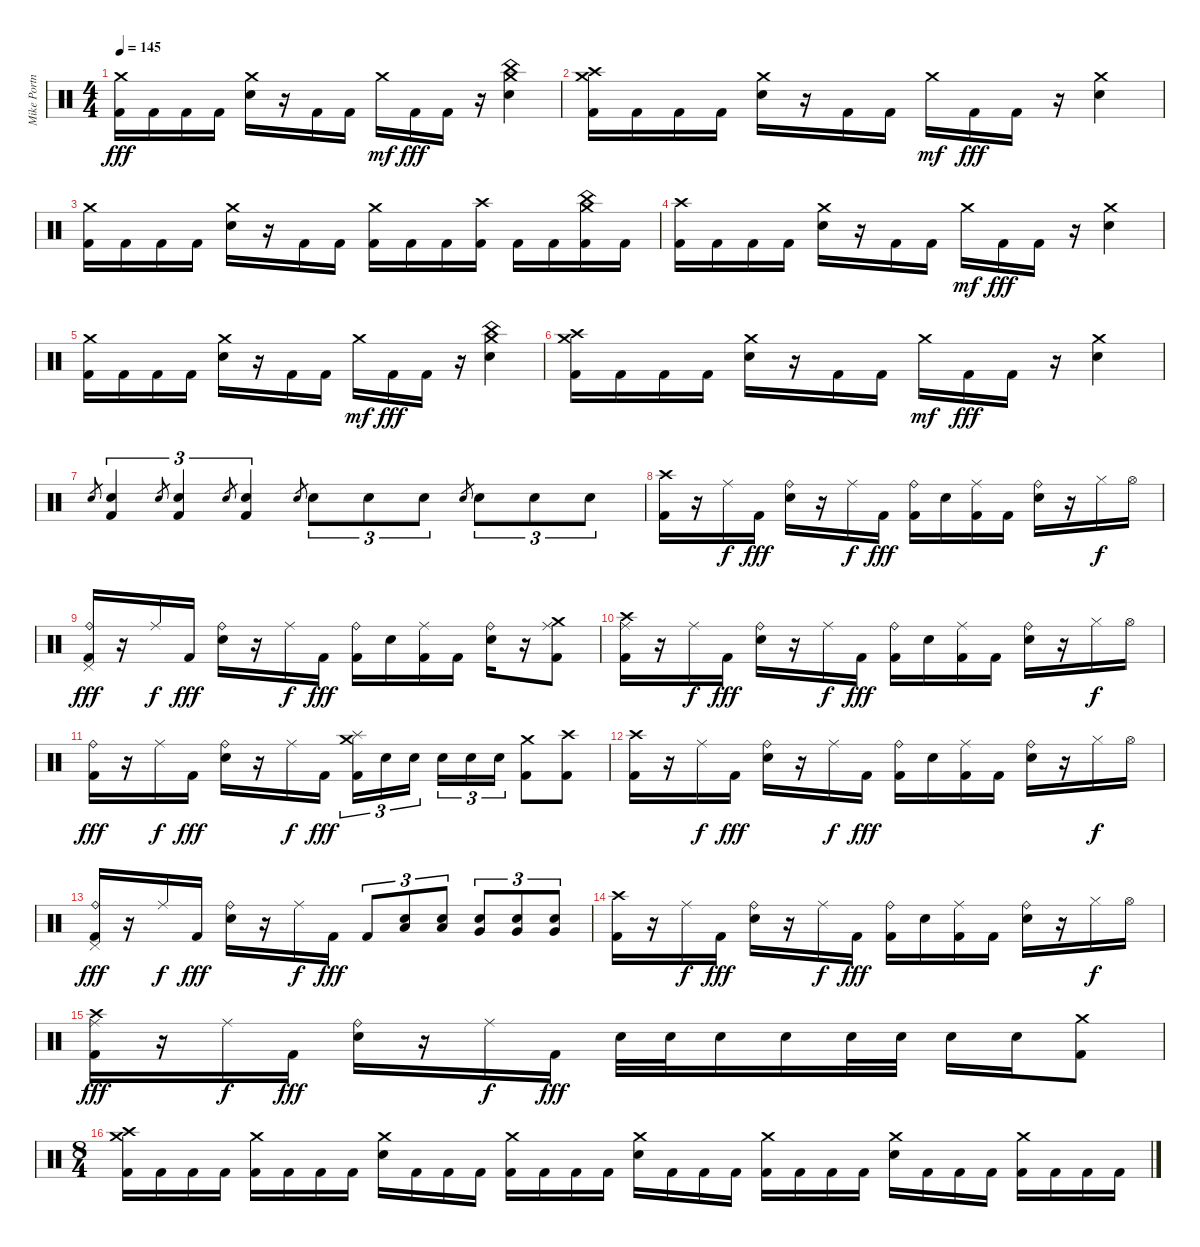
\track ("Mike Portnoy" "Mike Portn") {instrument percussion}
\staff {score}
\articulation defaults
\ts (4 4)
\tempo 145
\clef neutral
\ks c
("Crash medium (hit)" "Kick (hit) 2").16{dy fff} "Kick (hit) 2".16 "Kick (hit) 2".16 "Kick (hit) 2".16 ("Crash medium (hit)" "Electric Snare (hit)").16 r.16 "Kick (hit) 2".16 "Kick (hit) 2".16 "Crash medium (hit)".16{dy mf} "Kick (hit) 2".16{dy fff} "Kick (hit) 2".16 r.16 ("China (hit)" "Crash medium (hit)" "Electric Snare (hit)").4 |
("Crash high (hit)" "Crash medium (hit)" "Kick (hit) 2").16 "Kick (hit) 2".16 "Kick (hit) 2".16 "Kick (hit) 2".16 ("Crash medium (hit)" "Electric Snare (hit)").16 r.16 "Kick (hit) 2".16 "Kick (hit) 2".16 "Crash medium (hit)".16{dy mf} "Kick (hit) 2".16{dy fff} "Kick (hit) 2".16 r.16 ("Crash medium (hit)" "Electric Snare (hit)").4 |
("Crash medium (hit)" "Kick (hit) 2").16 "Kick (hit) 2".16 "Kick (hit) 2".16 "Kick (hit) 2".16 ("Crash medium (hit)" "Electric Snare (hit)").16 r.16 "Kick (hit) 2".16 "Kick (hit) 2".16 ("Crash medium (hit)" "Kick (hit) 2").16 "Kick (hit) 2".16 "Kick (hit) 2".16 ("Crash high (hit)" "Kick (hit) 2").16 "Kick (hit) 2".16 "Kick (hit) 2".16 ("China (hit)" "Crash medium (hit)" "Kick (hit) 2").16 "Kick (hit) 2".16 |
("Crash high (hit)" "Kick (hit) 2").16 "Kick (hit) 2".16 "Kick (hit) 2".16 "Kick (hit) 2".16 ("Crash medium (hit)" "Electric Snare (hit)").16 r.16 "Kick (hit) 2".16 "Kick (hit) 2".16 "Crash medium (hit)".16{dy mf} "Kick (hit) 2".16{dy fff} "Kick (hit) 2".16 r.16 ("Crash medium (hit)" "Electric Snare (hit)").4 |
("Crash medium (hit)" "Kick (hit) 2").16 "Kick (hit) 2".16 "Kick (hit) 2".16 "Kick (hit) 2".16 ("Crash medium (hit)" "Electric Snare (hit)").16 r.16 "Kick (hit) 2".16 "Kick (hit) 2".16 "Crash medium (hit)".16{dy mf} "Kick (hit) 2".16{dy fff} "Kick (hit) 2".16 r.16 ("China (hit)" "Crash medium (hit)" "Electric Snare (hit)").4 |
("Crash high (hit)" "Crash medium (hit)" "Kick (hit) 2").16 "Kick (hit) 2".16 "Kick (hit) 2".16 "Kick (hit) 2".16 ("Crash medium (hit)" "Electric Snare (hit)").16 r.16 "Kick (hit) 2".16 "Kick (hit) 2".16 "Crash medium (hit)".16{dy mf} "Kick (hit) 2".16{dy fff} "Kick (hit) 2".16 r.16 ("Crash medium (hit)" "Electric Snare (hit)").4 |
"Electric Snare (hit)".8{gr} ("Kick (hit) 2" "Electric Snare (hit)").4{tu (3 2) bd 480} "Electric Snare (hit)".8{gr} ("Kick (hit) 2" "Electric Snare (hit)").4{tu (3 2) bd 480} "Electric Snare (hit)".8{gr} ("Kick (hit) 2" "Electric Snare (hit)").4{tu (3 2) bd 480} "Electric Snare (hit)".8{gr} "Electric Snare (hit)".8{tu (3 2)} "Electric Snare (hit)".8{tu (3 2)} "Electric Snare (hit)".8{tu (3 2)} "Electric Snare (hit)".8{gr} "Electric Snare (hit)".8{tu (3 2)} "Electric Snare (hit)".8{tu (3 2)} "Electric Snare (hit)".8{tu (3 2)} |
("Crash high (hit)" "Kick (hit) 2").16 r.16 "Ride (middle)".16{dy f} "Kick (hit) 2".16{dy fff} ("Ride (bell)" "Electric Snare (hit)").16 r.16 "Ride (middle)".16{dy f} "Kick (hit) 2".16{dy fff} ("Ride (bell)" "Kick (hit) 2").16 "Electric Snare (hit)".16 ("Ride (middle)" "Kick (hit) 2").16 "Kick (hit) 2".16 ("Ride (bell)" "Electric Snare (hit)").16 r.16 "Hi-Hat (closed)".16{dy f} "Hi-Hat (open)".16 |
("Pedal Hi-Hat (hit)" "Ride (bell)" "Kick (hit) 2").16{dy fff} r.16 "Ride (middle)".16{dy f} "Kick (hit) 2".16{dy fff} ("Ride (bell)" "Electric Snare (hit)").16 r.16 "Ride (middle)".16{dy f} "Kick (hit) 2".16{dy fff} ("Ride (bell)" "Kick (hit) 2").16 "Electric Snare (hit)".16 ("Ride (middle)" "Kick (hit) 2").16 "Kick (hit) 2".16 ("Ride (bell)" "Electric Snare (hit)").16 r.16 ("Crash medium (hit)" "Ride (middle)" "Kick (hit) 2").8 |
("Crash high (hit)" "Ride (middle)" "Kick (hit) 2").16 r.16 "Ride (middle)".16{dy f} "Kick (hit) 2".16{dy fff} ("Ride (bell)" "Electric Snare (hit)").16 r.16 "Ride (middle)".16{dy f} "Kick (hit) 2".16{dy fff} ("Ride (bell)" "Kick (hit) 2").16 "Electric Snare (hit)".16 ("Ride (middle)" "Kick (hit) 2").16 "Kick (hit) 2".16 ("Ride (bell)" "Electric Snare (hit)").16 r.16 "Hi-Hat (closed)".16{dy f} "Hi-Hat (open)".16 |
("Ride (bell)" "Kick (hit) 2").16{dy fff} r.16 "Ride (middle)".16{dy f} "Kick (hit) 2".16{dy fff} ("Ride (bell)" "Electric Snare (hit)").16 r.16 "Ride (middle)".16{dy f} "Kick (hit) 2".16{dy fff} ("Splash (hit)" "Crash medium (hit)" "Kick (hit) 2").16{tu (3 2)} "Electric Snare (hit)".16{tu (3 2)} "Electric Snare (hit)".16{tu (3 2) beam splitsecondary} "Electric Snare (hit)".16{tu (3 2)} "Electric Snare (hit)".16{tu (3 2)} "Electric Snare (hit)".16{tu (3 2)} ("Crash medium (hit)" "Kick (hit) 2").8 ("Crash high (hit)" "Kick (hit) 2").8 |
("Crash high (hit)" "Kick (hit) 2").16 r.16 "Ride (middle)".16{dy f} "Kick (hit) 2".16{dy fff} ("Ride (bell)" "Electric Snare (hit)").16 r.16 "Ride (middle)".16{dy f} "Kick (hit) 2".16{dy fff} ("Ride (bell)" "Kick (hit) 2").16 "Electric Snare (hit)".16 ("Ride (middle)" "Kick (hit) 2").16 "Kick (hit) 2".16 ("Ride (bell)" "Electric Snare (hit)").16 r.16 "Hi-Hat (closed)".16{dy f} "Hi-Hat (open)".16 |
("Pedal Hi-Hat (hit)" "Ride (bell)" "Kick (hit) 2").16{dy fff} r.16 "Ride (middle)".16{dy f} "Kick (hit) 2".16{dy fff} ("Ride (bell)" "Electric Snare (hit)").16 r.16 "Ride (middle)".16{dy f} "Kick (hit) 2".16{dy fff} "Kick (hit) 2".8{tu (3 2)} ("Low Tom (hit)" "Electric Snare (hit)").8{tu (3 2)} ("Low Tom (hit)" "Electric Snare (hit)").8{tu (3 2)} ("Very Low Tom (hit)" "Electric Snare (hit)").8{tu (3 2)} ("Very Low Tom (hit)" "Electric Snare (hit)").8{tu (3 2)} ("Very Low Tom (hit)" "Electric Snare (hit)").8{tu (3 2)} |
("Crash high (hit)" "Kick (hit) 2").16 r.16 "Ride (middle)".16{dy f} "Kick (hit) 2".16{dy fff} ("Ride (bell)" "Electric Snare (hit)").16 r.16 "Ride (middle)".16{dy f} "Kick (hit) 2".16{dy fff} ("Ride (bell)" "Kick (hit) 2").16 "Electric Snare (hit)".16 ("Ride (middle)" "Kick (hit) 2").16 "Kick (hit) 2".16 ("Ride (bell)" "Electric Snare (hit)").16 r.16 "Hi-Hat (closed)".16{dy f} "Hi-Hat (open)".16 |
("Crash high (hit)" "Ride (middle)" "Kick (hit) 2").16{dy fff} r.16 "Ride (middle)".16{dy f} "Kick (hit) 2".16{dy fff} ("Ride (bell)" "Electric Snare (hit)").16 r.16 "Ride (middle)".16{dy f} "Kick (hit) 2".16{dy fff} "Electric Snare (hit)".32 "Electric Snare (hit)".32 "Electric Snare (hit)".16 "Electric Snare (hit)".16 "Electric Snare (hit)".32 "Electric Snare (hit)".32 "Electric Snare (hit)".16 "Electric Snare (hit)".16 ("Crash medium (hit)" "Kick (hit) 2").8 |
\ts (8 4)
("Crash high (hit)" "Crash medium (hit)" "Kick (hit) 2").16 "Kick (hit) 2".16 "Kick (hit) 2".16 "Kick (hit) 2".16 ("Crash medium (hit)" "Kick (hit) 2").16 "Kick (hit) 2".16 "Kick (hit) 2".16 "Kick (hit) 2".16 ("Crash medium (hit)" "Electric Snare (hit)").16 "Kick (hit) 2".16 "Kick (hit) 2".16 "Kick (hit) 2".16 ("Crash medium (hit)" "Kick (hit) 2").16 "Kick (hit) 2".16 "Kick (hit) 2".16 "Kick (hit) 2".16 ("Crash medium (hit)" "Electric Snare (hit)").16 "Kick (hit) 2".16 "Kick (hit) 2".16 "Kick (hit) 2".16 ("Crash medium (hit)" "Kick (hit) 2").16 "Kick (hit) 2".16 "Kick (hit) 2".16 "Kick (hit) 2".16 ("Crash medium (hit)" "Electric Snare (hit)").16 "Kick (hit) 2".16 "Kick (hit) 2".16 "Kick (hit) 2".16 ("Crash medium (hit)" "Kick (hit) 2").16 "Kick (hit) 2".16 "Kick (hit) 2".16 "Kick (hit) 2".16
